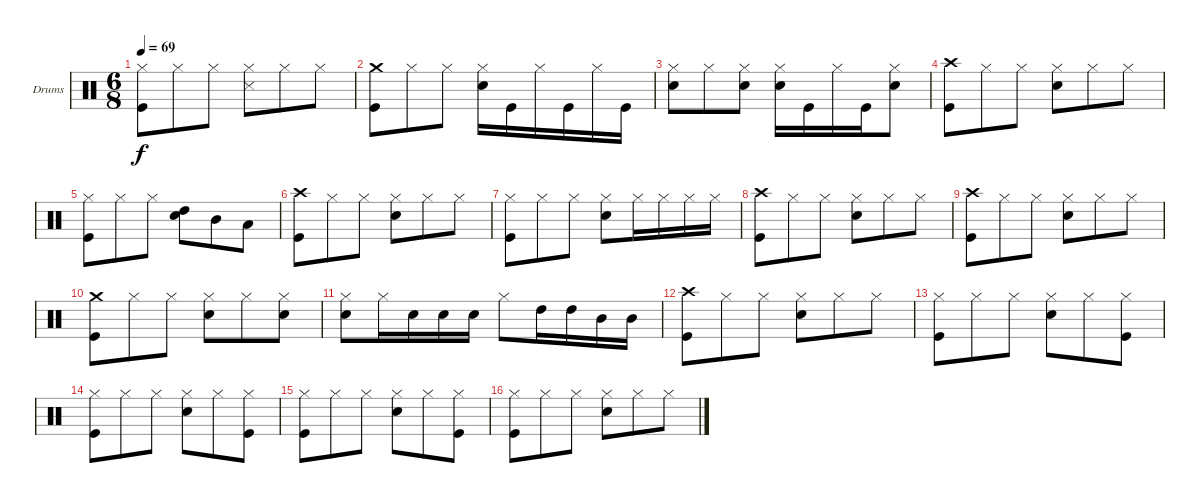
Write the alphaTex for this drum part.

\defaultSystemsLayout 4
\bracketExtendMode groupsimilarinstruments
\firstSystemTrackNameOrientation horizontal
\otherSystemsTrackNameOrientation horizontal
\track ("Удар" "Drums") {instrument percussion}
\staff {score}
\articulation defaults
\ts (6 8)
\tempo 69
\clef neutral
\ks c
("Hi-Hat (closed)" "Kick (hit)").8{dy f} "Hi-Hat (closed)".8 "Hi-Hat (closed)".8 ("Hi-Hat (closed)" "Snare (side stick) 3").8 "Hi-Hat (closed)".8 "Hi-Hat (closed)".8 |
("Crash medium (hit)" "Kick (hit)").8 "Hi-Hat (closed)".8 "Hi-Hat (closed)".8 ("Hi-Hat (closed)" "Snare (hit) 2").16 "Kick (hit)".16 "Hi-Hat (closed)".16 "Kick (hit)".16 "Hi-Hat (closed)".16 "Kick (hit)".16 |
("Hi-Hat (closed)" "Snare (hit) 2").8 "Hi-Hat (closed)".8 ("Hi-Hat (closed)" "Snare (hit) 2").8 ("Hi-Hat (closed)" "Snare (hit) 2").16 "Kick (hit)".16 "Hi-Hat (closed)".16 "Kick (hit)".16 ("Hi-Hat (closed)" "Snare (hit) 2").8 |
("Crash high (hit)" "Kick (hit)").8 "Hi-Hat (closed)".8 "Hi-Hat (closed)".8 ("Hi-Hat (closed)" "Snare (hit) 2").8 "Hi-Hat (closed)".8 "Hi-Hat (closed)".8 |
("Hi-Hat (closed)" "Kick (hit)").8 "Hi-Hat (closed)".8 "Hi-Hat (closed)".8 ("Snare (hit) 2" "High Tom (hit)").8 "Mid Tom (hit)".8 "Low Tom (hit)".8 |
("Crash high (hit)" "Kick (hit)").8 "Hi-Hat (closed)".8 "Hi-Hat (closed)".8 ("Hi-Hat (closed)" "Snare (hit) 2").8 "Hi-Hat (closed)".8 "Hi-Hat (closed)".8 |
("Hi-Hat (closed)" "Kick (hit)").8 "Hi-Hat (closed)".8 "Hi-Hat (closed)".8 ("Hi-Hat (closed)" "Snare (hit) 2").8 "Hi-Hat (closed)".16 "Hi-Hat (closed)".16 "Hi-Hat (closed)".16 "Hi-Hat (closed)".16 |
("Crash high (hit)" "Kick (hit)").8 "Hi-Hat (closed)".8 "Hi-Hat (closed)".8 ("Hi-Hat (closed)" "Snare (hit) 2").8 "Hi-Hat (closed)".8 "Hi-Hat (closed)".8 |
("Crash high (hit)" "Kick (hit)").8 "Hi-Hat (closed)".8 "Hi-Hat (closed)".8 ("Hi-Hat (closed)" "Snare (hit) 2").8 "Hi-Hat (closed)".8 "Hi-Hat (closed)".8 |
("Crash medium (hit)" "Kick (hit)").8 "Hi-Hat (closed)".8 "Hi-Hat (closed)".8 ("Hi-Hat (closed)" "Snare (hit) 2").8 "Hi-Hat (closed)".8 ("Hi-Hat (closed)" "Snare (hit) 2").8 |
("Hi-Hat (closed)" "Snare (hit) 2").8 "Hi-Hat (closed)".16 "Snare (hit) 2".16 "Snare (hit) 2".16 "Snare (hit) 2".16 "Hi-Hat (closed)".8 "High Tom (hit)".16 "High Tom (hit)".16 "Mid Tom (hit)".16 "Mid Tom (hit)".16 |
("Crash high (hit)" "Kick (hit)").8 "Hi-Hat (closed)".8 "Hi-Hat (closed)".8 ("Hi-Hat (closed)" "Snare (hit) 2").8 "Hi-Hat (closed)".8 "Hi-Hat (closed)".8 |
("Hi-Hat (closed)" "Kick (hit)").8 "Hi-Hat (closed)".8 "Hi-Hat (closed)".8 ("Hi-Hat (closed)" "Snare (hit) 2").8 "Hi-Hat (closed)".8 ("Hi-Hat (closed)" "Kick (hit)").8 |
("Hi-Hat (closed)" "Kick (hit)").8 "Hi-Hat (closed)".8 "Hi-Hat (closed)".8 ("Hi-Hat (closed)" "Snare (hit) 2").8 "Hi-Hat (closed)".8 ("Hi-Hat (closed)" "Kick (hit)").8 |
("Hi-Hat (closed)" "Kick (hit)").8 "Hi-Hat (closed)".8 "Hi-Hat (closed)".8 ("Hi-Hat (closed)" "Snare (hit) 2").8 "Hi-Hat (closed)".8 ("Hi-Hat (closed)" "Kick (hit)").8 |
("Hi-Hat (closed)" "Kick (hit)").8 "Hi-Hat (closed)".8 "Hi-Hat (closed)".8 ("Hi-Hat (closed)" "Snare (hit) 2").8 "Hi-Hat (closed)".8 "Hi-Hat (closed)".8
